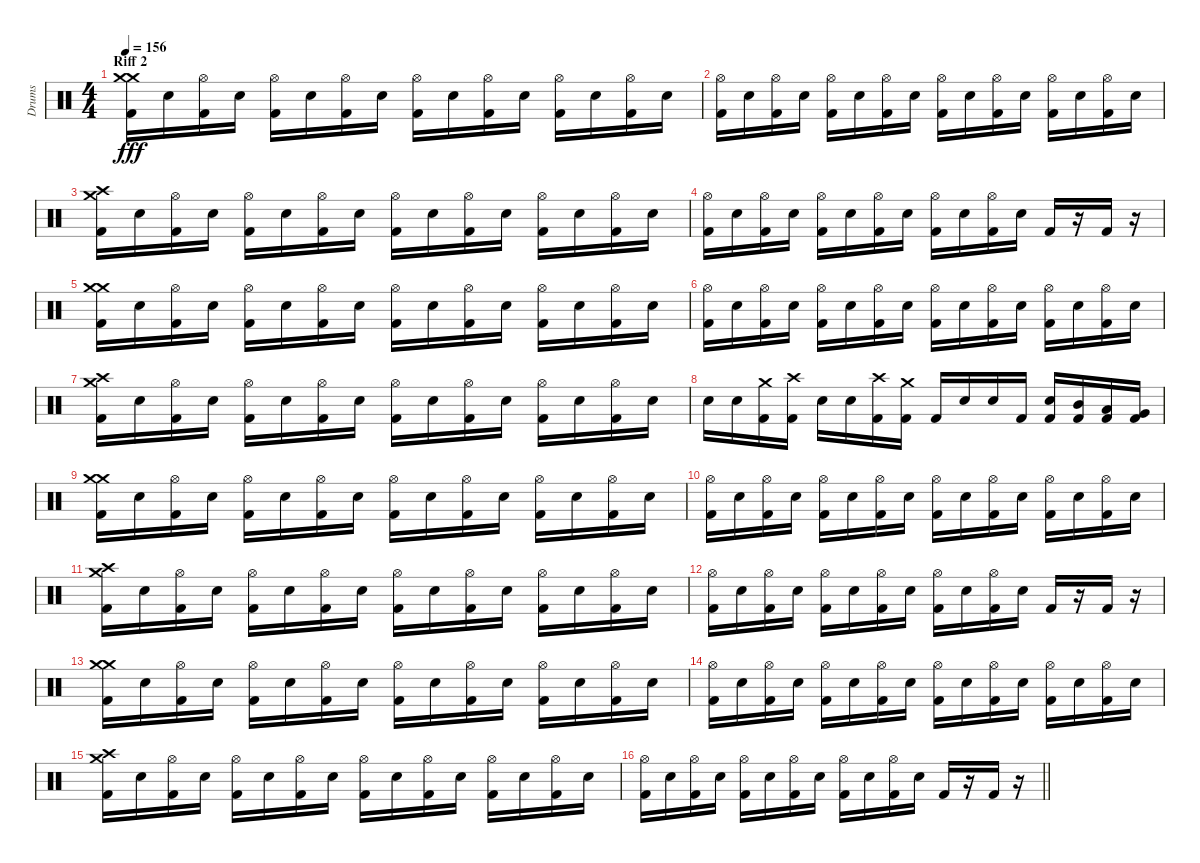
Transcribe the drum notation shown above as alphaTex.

\track ("Drums" "Drums") {instrument percussion}
\staff {score}
\articulation defaults
\ts (4 4)
\section ("" "Riff 2")
\tempo 156
\clef neutral
\ks c
("Kick (hit) 2" "Crash medium (hit)" "Crash medium (hit)").16{dy fff} "Snare (hit) 2".16 ("Kick (hit) 2" "Hi-Hat (open)").16 "Snare (hit) 2".16 ("Kick (hit) 2" "Hi-Hat (open)").16 "Snare (hit) 2".16 ("Kick (hit) 2" "Hi-Hat (open)").16 "Snare (hit) 2".16 ("Kick (hit) 2" "Hi-Hat (open)").16 "Snare (hit) 2".16 ("Kick (hit) 2" "Hi-Hat (open)").16 "Snare (hit) 2".16 ("Kick (hit) 2" "Hi-Hat (open)").16 "Snare (hit) 2".16 ("Kick (hit) 2" "Hi-Hat (open)").16 "Snare (hit) 2".16 |
("Kick (hit) 2" "Hi-Hat (open)").16 "Snare (hit) 2".16 ("Kick (hit) 2" "Hi-Hat (open)").16 "Snare (hit) 2".16 ("Kick (hit) 2" "Hi-Hat (open)").16 "Snare (hit) 2".16 ("Kick (hit) 2" "Hi-Hat (open)").16 "Snare (hit) 2".16 ("Kick (hit) 2" "Hi-Hat (open)").16 "Snare (hit) 2".16 ("Kick (hit) 2" "Hi-Hat (open)").16 "Snare (hit) 2".16 ("Kick (hit) 2" "Hi-Hat (open)").16 "Snare (hit) 2".16 ("Kick (hit) 2" "Hi-Hat (open)").16 "Snare (hit) 2".16 |
("Kick (hit) 2" "Crash high (hit)" "Crash medium (hit)").16 "Snare (hit) 2".16 ("Kick (hit) 2" "Hi-Hat (open)").16 "Snare (hit) 2".16 ("Kick (hit) 2" "Hi-Hat (open)").16 "Snare (hit) 2".16 ("Kick (hit) 2" "Hi-Hat (open)").16 "Snare (hit) 2".16 ("Kick (hit) 2" "Hi-Hat (open)").16 "Snare (hit) 2".16 ("Kick (hit) 2" "Hi-Hat (open)").16 "Snare (hit) 2".16 ("Kick (hit) 2" "Hi-Hat (open)").16 "Snare (hit) 2".16 ("Kick (hit) 2" "Hi-Hat (open)").16 "Snare (hit) 2".16 |
("Kick (hit) 2" "Hi-Hat (open)").16 "Snare (hit) 2".16 ("Kick (hit) 2" "Hi-Hat (open)").16 "Snare (hit) 2".16 ("Kick (hit) 2" "Hi-Hat (open)").16 "Snare (hit) 2".16 ("Kick (hit) 2" "Hi-Hat (open)").16 "Snare (hit) 2".16 ("Kick (hit) 2" "Hi-Hat (open)").16 "Snare (hit) 2".16 ("Kick (hit) 2" "Hi-Hat (open)").16 "Snare (hit) 2".16 "Kick (hit) 2".16 r.16 "Kick (hit) 2".16 r.16 |
("Kick (hit) 2" "Crash medium (hit)" "Crash medium (hit)").16 "Snare (hit) 2".16 ("Kick (hit) 2" "Hi-Hat (open)").16 "Snare (hit) 2".16 ("Kick (hit) 2" "Hi-Hat (open)").16 "Snare (hit) 2".16 ("Kick (hit) 2" "Hi-Hat (open)").16 "Snare (hit) 2".16 ("Kick (hit) 2" "Hi-Hat (open)").16 "Snare (hit) 2".16 ("Kick (hit) 2" "Hi-Hat (open)").16 "Snare (hit) 2".16 ("Kick (hit) 2" "Hi-Hat (open)").16 "Snare (hit) 2".16 ("Kick (hit) 2" "Hi-Hat (open)").16 "Snare (hit) 2".16 |
("Kick (hit) 2" "Hi-Hat (open)").16 "Snare (hit) 2".16 ("Kick (hit) 2" "Hi-Hat (open)").16 "Snare (hit) 2".16 ("Kick (hit) 2" "Hi-Hat (open)").16 "Snare (hit) 2".16 ("Kick (hit) 2" "Hi-Hat (open)").16 "Snare (hit) 2".16 ("Kick (hit) 2" "Hi-Hat (open)").16 "Snare (hit) 2".16 ("Kick (hit) 2" "Hi-Hat (open)").16 "Snare (hit) 2".16 ("Kick (hit) 2" "Hi-Hat (open)").16 "Snare (hit) 2".16 ("Kick (hit) 2" "Hi-Hat (open)").16 "Snare (hit) 2".16 |
("Kick (hit) 2" "Crash high (hit)" "Crash medium (hit)").16 "Snare (hit) 2".16 ("Kick (hit) 2" "Hi-Hat (open)").16 "Snare (hit) 2".16 ("Kick (hit) 2" "Hi-Hat (open)").16 "Snare (hit) 2".16 ("Kick (hit) 2" "Hi-Hat (open)").16 "Snare (hit) 2".16 ("Kick (hit) 2" "Hi-Hat (open)").16 "Snare (hit) 2".16 ("Kick (hit) 2" "Hi-Hat (open)").16 "Snare (hit) 2".16 ("Kick (hit) 2" "Hi-Hat (open)").16 "Snare (hit) 2".16 ("Kick (hit) 2" "Hi-Hat (open)").16 "Snare (hit) 2".16 |
"Snare (hit) 2".16 "Snare (hit) 2".16 ("Kick (hit) 2" "Crash medium (hit)").16 ("Kick (hit) 2" "Crash high (hit)").16 "Snare (hit) 2".16 "Snare (hit) 2".16 ("Kick (hit) 2" "Crash high (hit)").16 ("Kick (hit) 2" "Crash medium (hit)").16 "Kick (hit) 2".16 "Snare (hit) 2".16 "Snare (hit) 2".16 "Kick (hit) 2".16 ("Kick (hit) 2" "Snare (hit) 2").16 ("Kick (hit) 2" "Mid Tom (hit)").16 ("Kick (hit) 2" "Low Tom (hit)").16 ("Kick (hit) 2" "Very Low Tom (hit)").16 |
("Kick (hit) 2" "Crash medium (hit)" "Crash medium (hit)").16 "Snare (hit) 2".16 ("Kick (hit) 2" "Hi-Hat (open)").16 "Snare (hit) 2".16 ("Kick (hit) 2" "Hi-Hat (open)").16 "Snare (hit) 2".16 ("Kick (hit) 2" "Hi-Hat (open)").16 "Snare (hit) 2".16 ("Kick (hit) 2" "Hi-Hat (open)").16 "Snare (hit) 2".16 ("Kick (hit) 2" "Hi-Hat (open)").16 "Snare (hit) 2".16 ("Kick (hit) 2" "Hi-Hat (open)").16 "Snare (hit) 2".16 ("Kick (hit) 2" "Hi-Hat (open)").16 "Snare (hit) 2".16 |
("Kick (hit) 2" "Hi-Hat (open)").16 "Snare (hit) 2".16 ("Kick (hit) 2" "Hi-Hat (open)").16 "Snare (hit) 2".16 ("Kick (hit) 2" "Hi-Hat (open)").16 "Snare (hit) 2".16 ("Kick (hit) 2" "Hi-Hat (open)").16 "Snare (hit) 2".16 ("Kick (hit) 2" "Hi-Hat (open)").16 "Snare (hit) 2".16 ("Kick (hit) 2" "Hi-Hat (open)").16 "Snare (hit) 2".16 ("Kick (hit) 2" "Hi-Hat (open)").16 "Snare (hit) 2".16 ("Kick (hit) 2" "Hi-Hat (open)").16 "Snare (hit) 2".16 |
("Kick (hit) 2" "Crash high (hit)" "Crash medium (hit)").16 "Snare (hit) 2".16 ("Kick (hit) 2" "Hi-Hat (open)").16 "Snare (hit) 2".16 ("Kick (hit) 2" "Hi-Hat (open)").16 "Snare (hit) 2".16 ("Kick (hit) 2" "Hi-Hat (open)").16 "Snare (hit) 2".16 ("Kick (hit) 2" "Hi-Hat (open)").16 "Snare (hit) 2".16 ("Kick (hit) 2" "Hi-Hat (open)").16 "Snare (hit) 2".16 ("Kick (hit) 2" "Hi-Hat (open)").16 "Snare (hit) 2".16 ("Kick (hit) 2" "Hi-Hat (open)").16 "Snare (hit) 2".16 |
("Kick (hit) 2" "Hi-Hat (open)").16 "Snare (hit) 2".16 ("Kick (hit) 2" "Hi-Hat (open)").16 "Snare (hit) 2".16 ("Kick (hit) 2" "Hi-Hat (open)").16 "Snare (hit) 2".16 ("Kick (hit) 2" "Hi-Hat (open)").16 "Snare (hit) 2".16 ("Kick (hit) 2" "Hi-Hat (open)").16 "Snare (hit) 2".16 ("Kick (hit) 2" "Hi-Hat (open)").16 "Snare (hit) 2".16 "Kick (hit) 2".16 r.16 "Kick (hit) 2".16 r.16 |
("Kick (hit) 2" "Crash medium (hit)" "Crash medium (hit)").16 "Snare (hit) 2".16 ("Kick (hit) 2" "Hi-Hat (open)").16 "Snare (hit) 2".16 ("Kick (hit) 2" "Hi-Hat (open)").16 "Snare (hit) 2".16 ("Kick (hit) 2" "Hi-Hat (open)").16 "Snare (hit) 2".16 ("Kick (hit) 2" "Hi-Hat (open)").16 "Snare (hit) 2".16 ("Kick (hit) 2" "Hi-Hat (open)").16 "Snare (hit) 2".16 ("Kick (hit) 2" "Hi-Hat (open)").16 "Snare (hit) 2".16 ("Kick (hit) 2" "Hi-Hat (open)").16 "Snare (hit) 2".16 |
("Kick (hit) 2" "Hi-Hat (open)").16 "Snare (hit) 2".16 ("Kick (hit) 2" "Hi-Hat (open)").16 "Snare (hit) 2".16 ("Kick (hit) 2" "Hi-Hat (open)").16 "Snare (hit) 2".16 ("Kick (hit) 2" "Hi-Hat (open)").16 "Snare (hit) 2".16 ("Kick (hit) 2" "Hi-Hat (open)").16 "Snare (hit) 2".16 ("Kick (hit) 2" "Hi-Hat (open)").16 "Snare (hit) 2".16 ("Kick (hit) 2" "Hi-Hat (open)").16 "Snare (hit) 2".16 ("Kick (hit) 2" "Hi-Hat (open)").16 "Snare (hit) 2".16 |
("Kick (hit) 2" "Crash high (hit)" "Crash medium (hit)").16 "Snare (hit) 2".16 ("Kick (hit) 2" "Hi-Hat (open)").16 "Snare (hit) 2".16 ("Kick (hit) 2" "Hi-Hat (open)").16 "Snare (hit) 2".16 ("Kick (hit) 2" "Hi-Hat (open)").16 "Snare (hit) 2".16 ("Kick (hit) 2" "Hi-Hat (open)").16 "Snare (hit) 2".16 ("Kick (hit) 2" "Hi-Hat (open)").16 "Snare (hit) 2".16 ("Kick (hit) 2" "Hi-Hat (open)").16 "Snare (hit) 2".16 ("Kick (hit) 2" "Hi-Hat (open)").16 "Snare (hit) 2".16 |
\barLineRight lightlight
("Kick (hit) 2" "Hi-Hat (open)").16 "Snare (hit) 2".16 ("Kick (hit) 2" "Hi-Hat (open)").16 "Snare (hit) 2".16 ("Kick (hit) 2" "Hi-Hat (open)").16 "Snare (hit) 2".16 ("Kick (hit) 2" "Hi-Hat (open)").16 "Snare (hit) 2".16 ("Kick (hit) 2" "Hi-Hat (open)").16 "Snare (hit) 2".16 ("Kick (hit) 2" "Hi-Hat (open)").16 "Snare (hit) 2".16 "Kick (hit) 2".16 r.16 "Kick (hit) 2".16 r.16
